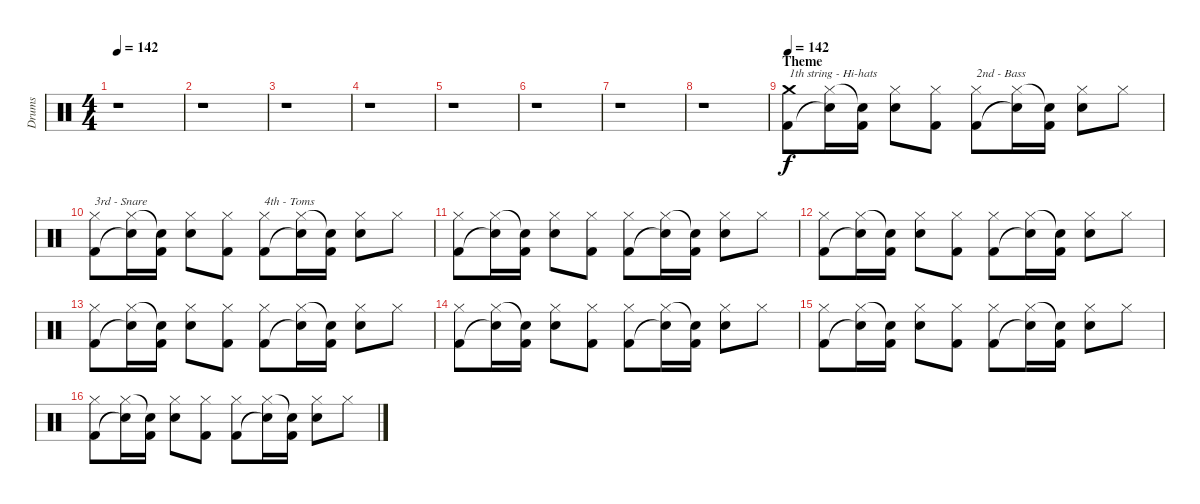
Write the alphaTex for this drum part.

\track ("Drums" "Drums") {instrument percussion}
\staff {score}
\articulation defaults
\ts (4 4)
\tempo 142
\clef neutral
\ks c
r.1{dy f} |
r.1 |
r.1 |
r.1 |
r.1 |
r.1 |
r.1 |
r.1 |
\section ("" "Theme")
\tempo 142
("Crash medium (hit)" "Kick (hit) 2").8{txt "1th string - Hi-hats"} ("Hi-Hat (closed)" "Snare (hit)"{t}).16 ("Snare (hit)"{t} "Kick (hit) 2").16 ("Hi-Hat (closed)" "Snare (hit) 2").8 ("Hi-Hat (closed)" "Kick (hit) 2").8 ("Hi-Hat (closed)" "Kick (hit) 2").8{txt "2nd - Bass"} ("Hi-Hat (closed)" "Snare (hit)"{t}).16 ("Snare (hit)"{t} "Kick (hit) 2").16 ("Hi-Hat (closed)" "Snare (hit) 2").8 "Hi-Hat (closed)".8 |
("Hi-Hat (closed)" "Kick (hit) 2").8{txt "3rd - Snare"} ("Hi-Hat (closed)" "Snare (hit)"{t}).16 ("Snare (hit)"{t} "Kick (hit) 2").16 ("Hi-Hat (closed)" "Snare (hit) 2").8 ("Hi-Hat (closed)" "Kick (hit) 2").8 ("Hi-Hat (closed)" "Kick (hit) 2").8{txt "4th - Toms"} ("Hi-Hat (closed)" "Snare (hit)"{t}).16 ("Snare (hit)"{t} "Kick (hit) 2").16 ("Hi-Hat (closed)" "Snare (hit) 2").8 "Hi-Hat (closed)".8 |
("Hi-Hat (closed)" "Kick (hit) 2").8 ("Hi-Hat (closed)" "Snare (hit)"{t}).16 ("Snare (hit)"{t} "Kick (hit) 2").16 ("Hi-Hat (closed)" "Snare (hit) 2").8 ("Hi-Hat (closed)" "Kick (hit) 2").8 ("Hi-Hat (closed)" "Kick (hit) 2").8 ("Hi-Hat (closed)" "Snare (hit)"{t}).16 ("Snare (hit)"{t} "Kick (hit) 2").16 ("Hi-Hat (closed)" "Snare (hit) 2").8 "Hi-Hat (closed)".8 |
("Hi-Hat (closed)" "Kick (hit) 2").8 ("Hi-Hat (closed)" "Snare (hit)"{t}).16 ("Snare (hit)"{t} "Kick (hit) 2").16 ("Hi-Hat (closed)" "Snare (hit) 2").8 ("Hi-Hat (closed)" "Kick (hit) 2").8 ("Hi-Hat (closed)" "Kick (hit) 2").8 ("Hi-Hat (closed)" "Snare (hit)"{t}).16 ("Snare (hit)"{t} "Kick (hit) 2").16 ("Hi-Hat (closed)" "Snare (hit) 2").8 "Hi-Hat (closed)".8 |
("Hi-Hat (closed)" "Kick (hit) 2").8 ("Hi-Hat (closed)" "Snare (hit)"{t}).16 ("Snare (hit)"{t} "Kick (hit) 2").16 ("Hi-Hat (closed)" "Snare (hit) 2").8 ("Hi-Hat (closed)" "Kick (hit) 2").8 ("Hi-Hat (closed)" "Kick (hit) 2").8 ("Hi-Hat (closed)" "Snare (hit)"{t}).16 ("Snare (hit)"{t} "Kick (hit) 2").16 ("Hi-Hat (closed)" "Snare (hit) 2").8 "Hi-Hat (closed)".8 |
("Hi-Hat (closed)" "Kick (hit) 2").8 ("Hi-Hat (closed)" "Snare (hit)"{t}).16 ("Snare (hit)"{t} "Kick (hit) 2").16 ("Hi-Hat (closed)" "Snare (hit) 2").8 ("Hi-Hat (closed)" "Kick (hit) 2").8 ("Hi-Hat (closed)" "Kick (hit) 2").8 ("Hi-Hat (closed)" "Snare (hit)"{t}).16 ("Snare (hit)"{t} "Kick (hit) 2").16 ("Hi-Hat (closed)" "Snare (hit) 2").8 "Hi-Hat (closed)".8 |
("Hi-Hat (closed)" "Kick (hit) 2").8 ("Hi-Hat (closed)" "Snare (hit)"{t}).16 ("Snare (hit)"{t} "Kick (hit) 2").16 ("Hi-Hat (closed)" "Snare (hit) 2").8 ("Hi-Hat (closed)" "Kick (hit) 2").8 ("Hi-Hat (closed)" "Kick (hit) 2").8 ("Hi-Hat (closed)" "Snare (hit)"{t}).16 ("Snare (hit)"{t} "Kick (hit) 2").16 ("Hi-Hat (closed)" "Snare (hit) 2").8 "Hi-Hat (closed)".8 |
("Hi-Hat (closed)" "Kick (hit) 2").8 ("Hi-Hat (closed)" "Snare (hit)"{t}).16 ("Snare (hit)"{t} "Kick (hit) 2").16 ("Hi-Hat (closed)" "Snare (hit) 2").8 ("Hi-Hat (closed)" "Kick (hit) 2").8 ("Hi-Hat (closed)" "Kick (hit) 2").8 ("Hi-Hat (closed)" "Snare (hit)"{t}).16 ("Snare (hit)"{t} "Kick (hit) 2").16 ("Hi-Hat (closed)" "Snare (hit) 2").8 "Hi-Hat (closed)".8
